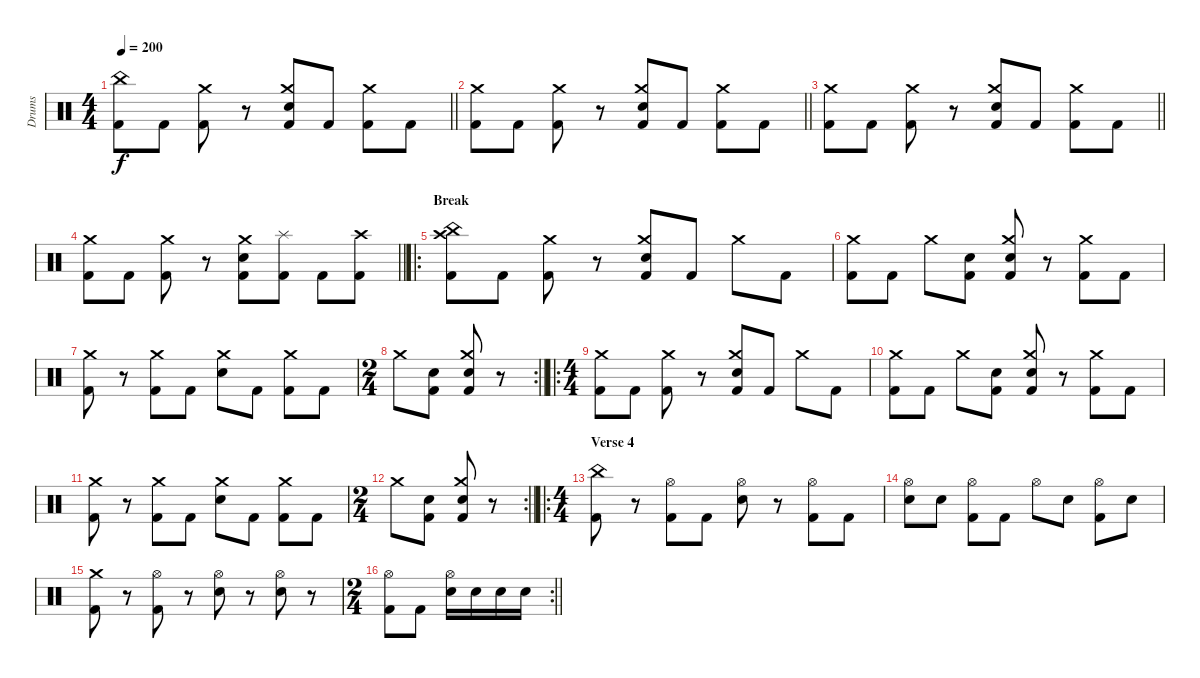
\track ("Drums" "Drums") {instrument percussion}
\staff {score}
\articulation defaults
\ts (4 4)
\tempo 200
\clef neutral
\barLineRight lightlight
\ks c
("China (hit)" "Kick (hit) 2").8{dy f} "Kick (hit) 2".8 ("Crash medium (hit)" "Kick (hit) 2").8 r.8 ("Crash medium (hit)" "Snare (hit) 2" "Kick (hit) 2").8 "Kick (hit) 2".8 ("Crash medium (hit)" "Kick (hit) 2").8 "Kick (hit) 2".8 |
\barLineRight lightlight
("Crash medium (hit)" "Kick (hit) 2").8 "Kick (hit) 2".8 ("Crash medium (hit)" "Kick (hit) 2").8 r.8 ("Crash medium (hit)" "Snare (hit) 2" "Kick (hit) 2").8 "Kick (hit) 2".8 ("Crash medium (hit)" "Kick (hit) 2").8 "Kick (hit) 2".8 |
\barLineRight lightlight
("Crash medium (hit)" "Kick (hit) 2").8 "Kick (hit) 2".8 ("Crash medium (hit)" "Kick (hit) 2").8 r.8 ("Crash medium (hit)" "Snare (hit) 2" "Kick (hit) 2").8 "Kick (hit) 2".8 ("Crash medium (hit)" "Kick (hit) 2").8 "Kick (hit) 2".8 |
\barLineRight lightlight
("Crash medium (hit)" "Kick (hit) 2").8 "Kick (hit) 2".8 ("Crash medium (hit)" "Kick (hit) 2").8 r.8 ("Crash medium (hit)" "Snare (hit) 2" "Kick (hit) 2").8 ("Splash (hit)" "Kick (hit) 2").8 "Kick (hit) 2".8 ("Crash high (hit)" "Kick (hit) 2").8 |
\ro
\section ("" "Break")
("China (hit)" "Crash high (hit)" "Kick (hit) 2").8 "Kick (hit) 2".8 ("Crash medium (hit)" "Kick (hit) 2").8 r.8 ("Crash medium (hit)" "Snare (hit) 2" "Kick (hit) 2").8 "Kick (hit) 2".8 "Crash medium (hit)".8 "Kick (hit) 2".8 |
("Crash medium (hit)" "Kick (hit) 2").8 "Kick (hit) 2".8 "Crash medium (hit)".8 ("Snare (hit) 2" "Kick (hit) 2").8 ("Crash medium (hit)" "Snare (hit) 2" "Kick (hit) 2").8 r.8 ("Crash medium (hit)" "Kick (hit) 2").8 "Kick (hit) 2".8 |
("Crash medium (hit)" "Kick (hit) 2").8 r.8 ("Crash medium (hit)" "Kick (hit) 2").8 "Kick (hit) 2".8 ("Crash medium (hit)" "Snare (hit) 2").8 "Kick (hit) 2".8 ("Crash medium (hit)" "Kick (hit) 2").8 "Kick (hit) 2".8 |
\rc 2
\ts (2 4)
\barLineRight lightlight "Crash medium (hit)".8
("Snare (hit) 2" "Kick (hit) 2").8 ("Crash medium (hit)" "Snare (hit) 2" "Kick (hit) 2").8 r.8 |
\ro
\ts (4 4)
("Crash medium (hit)" "Kick (hit) 2").8 "Kick (hit) 2".8 ("Crash medium (hit)" "Kick (hit) 2").8 r.8 ("Crash medium (hit)" "Snare (hit) 2" "Kick (hit) 2").8 "Kick (hit) 2".8 "Crash medium (hit)".8 "Kick (hit) 2".8 |
("Crash medium (hit)" "Kick (hit) 2").8 "Kick (hit) 2".8 "Crash medium (hit)".8 ("Snare (hit) 2" "Kick (hit) 2").8 ("Crash medium (hit)" "Snare (hit) 2" "Kick (hit) 2").8 r.8 ("Crash medium (hit)" "Kick (hit) 2").8 "Kick (hit) 2".8 |
("Crash medium (hit)" "Kick (hit) 2").8 r.8 ("Crash medium (hit)" "Kick (hit) 2").8 "Kick (hit) 2".8 ("Crash medium (hit)" "Snare (hit) 2").8 "Kick (hit) 2".8 ("Crash medium (hit)" "Kick (hit) 2").8 "Kick (hit) 2".8 |
\rc 2
\ts (2 4)
\barLineRight lightlight "Crash medium (hit)".8
("Snare (hit) 2" "Kick (hit) 2").8 ("Crash medium (hit)" "Snare (hit) 2" "Kick (hit) 2").8 r.8 |
\ro
\ts (4 4)
\section ("" "Verse 4")
("China (hit)" "Kick (hit) 2").8 r.8 ("Hi-Hat (open)" "Kick (hit) 2").8 "Kick (hit) 2".8 ("Hi-Hat (open)" "Snare (hit) 2").8 r.8 ("Hi-Hat (open)" "Kick (hit) 2").8 "Kick (hit) 2".8 |
("Hi-Hat (open)" "Snare (hit) 2").8 "Snare (hit) 2".8 ("Hi-Hat (open)" "Kick (hit) 2").8 "Kick (hit) 2".8 "Hi-Hat (open)".8 "Snare (hit) 2".8 ("Hi-Hat (open)" "Kick (hit) 2").8 "Snare (hit) 2".8 |
("Crash medium (hit)" "Kick (hit) 2").8 r.8 ("Hi-Hat (open)" "Kick (hit) 2").8 r.8 ("Hi-Hat (open)" "Snare (hit) 2").8 r.8 ("Hi-Hat (open)" "Snare (hit) 2").8 r.8 |
\rc 2
\ts (2 4)
\barLineRight lightlight
("Hi-Hat (open)" "Kick (hit) 2").8 "Kick (hit) 2".8 ("Hi-Hat (open)" "Snare (hit) 2").16 "Snare (hit) 2".16 "Snare (hit) 2".16 "Snare (hit) 2".16
